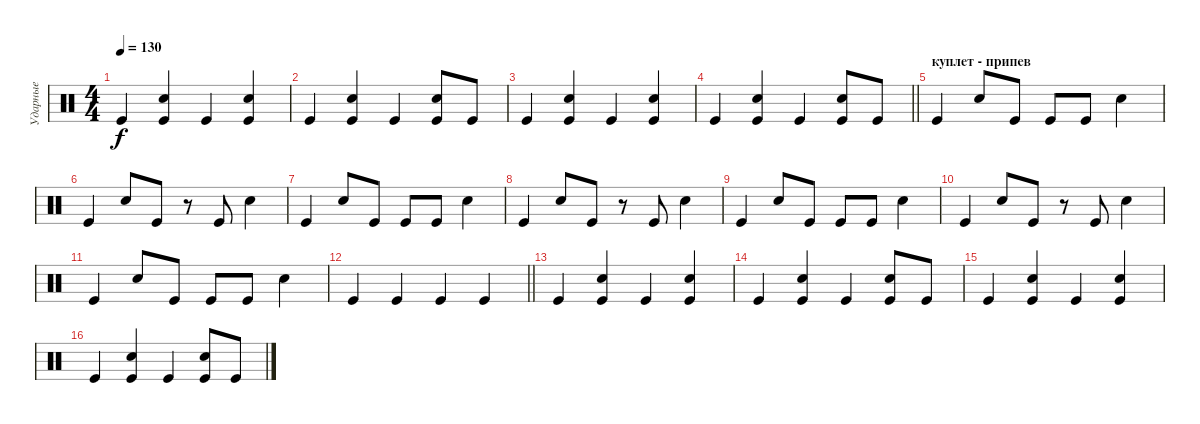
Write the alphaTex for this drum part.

\track ("Ударные" "Ударные") {instrument percussion}
\staff {score}
\articulation defaults
\ts (4 4)
\tempo 130
\clef neutral
\ks c "Kick (hit)".4{dy f}
("Kick (hit)" "Snare (hit) 2").4 "Kick (hit)".4 ("Kick (hit)" "Snare (hit) 2").4 |
"Kick (hit)".4 ("Snare (hit) 2" "Kick (hit)").4 "Kick (hit)".4 ("Snare (hit) 2" "Kick (hit)").8 "Kick (hit)".8 |
"Kick (hit)".4 ("Snare (hit) 2" "Kick (hit)").4 "Kick (hit)".4 ("Snare (hit) 2" "Kick (hit)").4 |
\barLineRight lightlight "Kick (hit)".4
("Snare (hit) 2" "Kick (hit)").4 "Kick (hit)".4 ("Snare (hit) 2" "Kick (hit)").8 "Kick (hit)".8 |
\section ("" "куплет - припев")
"Kick (hit)".4 "Snare (hit) 2".8 "Kick (hit)".8 "Kick (hit)".8 "Kick (hit)".8 "Snare (hit) 2".4 |
"Kick (hit)".4 "Snare (hit) 2".8 "Kick (hit)".8 r.8 "Kick (hit)".8 "Snare (hit) 2".4 |
"Kick (hit)".4 "Snare (hit) 2".8 "Kick (hit)".8 "Kick (hit)".8 "Kick (hit)".8 "Snare (hit) 2".4 |
"Kick (hit)".4 "Snare (hit) 2".8 "Kick (hit)".8 r.8 "Kick (hit)".8 "Snare (hit) 2".4 |
"Kick (hit)".4 "Snare (hit) 2".8 "Kick (hit)".8 "Kick (hit)".8 "Kick (hit)".8 "Snare (hit) 2".4 |
"Kick (hit)".4 "Snare (hit) 2".8 "Kick (hit)".8 r.8 "Kick (hit)".8 "Snare (hit) 2".4 |
"Kick (hit)".4 "Snare (hit) 2".8 "Kick (hit)".8 "Kick (hit)".8 "Kick (hit)".8 "Snare (hit) 2".4 |
\barLineRight lightlight "Kick (hit)".4 "Kick (hit)".4 "Kick (hit)".4 "Kick (hit)".4
|
"Kick (hit)".4 ("Kick (hit)" "Snare (hit) 2").4 "Kick (hit)".4 ("Kick (hit)" "Snare (hit) 2").4 |
"Kick (hit)".4 ("Kick (hit)" "Snare (hit) 2").4 "Kick (hit)".4 ("Kick (hit)" "Snare (hit) 2").8 "Kick (hit)".8 |
"Kick (hit)".4 ("Kick (hit)" "Snare (hit) 2").4 "Kick (hit)".4 ("Kick (hit)" "Snare (hit) 2").4 |
"Kick (hit)".4 ("Kick (hit)" "Snare (hit) 2").4 "Kick (hit)".4 ("Kick (hit)" "Snare (hit) 2").8 "Kick (hit)".8
